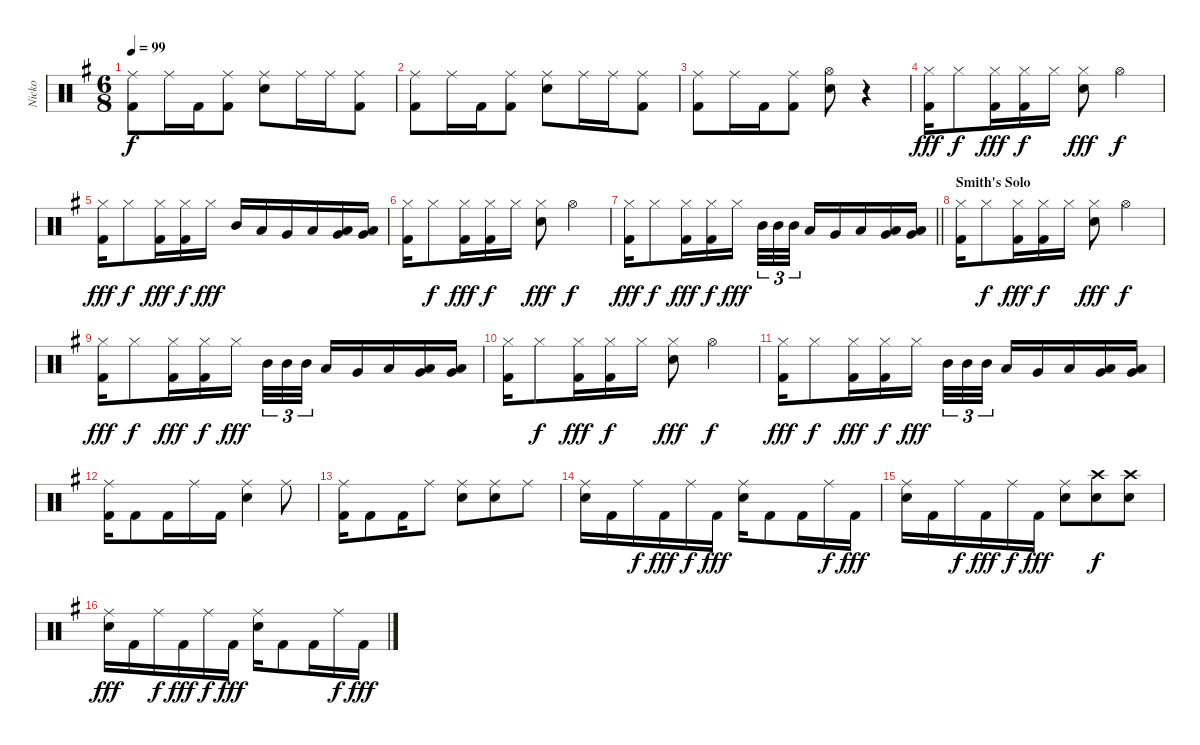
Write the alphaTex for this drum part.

\track ("Nicko" "Nicko") {instrument percussion}
\staff {score}
\articulation defaults
\ts (6 8)
\tempo 99
\clef neutral
\ks eminor
("Ride (middle)" "Kick (hit) 2").8{dy f} "Ride (middle)".16 "Kick (hit) 2".16 ("Ride (middle)" "Kick (hit) 2").8 ("Ride (middle)" "Snare (hit) 2").8 "Ride (middle)".16 "Ride (middle)".16 ("Ride (middle)" "Kick (hit) 2").8 |
("Ride (middle)" "Kick (hit) 2").8 "Ride (middle)".16 "Kick (hit) 2".16 ("Ride (middle)" "Kick (hit) 2").8 ("Ride (middle)" "Snare (hit) 2").8 "Ride (middle)".16 "Ride (middle)".16 ("Ride (middle)" "Kick (hit) 2").8 |
("Ride (middle)" "Kick (hit) 2").8 "Ride (middle)".16 "Kick (hit) 2".16 ("Ride (middle)" "Kick (hit) 2").8 ("Hi-Hat (open)" "Snare (hit) 2").8 r.4 |
("Hi-Hat (closed)" "Kick (hit) 2").16{dy fff} "Hi-Hat (closed)".8{dy f} ("Hi-Hat (closed)" "Kick (hit) 2").16{dy fff} ("Hi-Hat (closed)" "Kick (hit) 2").16{dy f} "Hi-Hat (closed)".16 ("Hi-Hat (closed)" "Snare (hit) 2").8{dy fff} "Hi-Hat (open)".4{dy f} |
("Hi-Hat (closed)" "Kick (hit) 2").16{dy fff} "Hi-Hat (closed)".8{dy f} ("Hi-Hat (closed)" "Kick (hit) 2").16{dy fff} ("Hi-Hat (closed)" "Kick (hit) 2").16{dy f} "Hi-Hat (closed)".16{dy fff} "Mid Tom (hit)".16 "Low Tom (hit)".16 "Very Low Tom (hit)".16 "Low Floor Tom (hit)".16 ("Very Low Tom (hit)" "Low Floor Tom (hit)").16 ("Very Low Tom (hit)" "Low Floor Tom (hit)").16 |
("Hi-Hat (closed)" "Kick (hit) 2").16 "Hi-Hat (closed)".8{dy f} ("Hi-Hat (closed)" "Kick (hit) 2").16{dy fff} ("Hi-Hat (closed)" "Kick (hit) 2").16{dy f} "Hi-Hat (closed)".16 ("Hi-Hat (closed)" "Snare (hit) 2").8{dy fff} "Hi-Hat (open)".4{dy f} |
\barLineRight lightlight
("Hi-Hat (closed)" "Kick (hit) 2").16{dy fff} "Hi-Hat (closed)".8{dy f} ("Hi-Hat (closed)" "Kick (hit) 2").16{dy fff} ("Hi-Hat (closed)" "Kick (hit) 2").16{dy f} "Hi-Hat (closed)".16{dy fff} "Mid Tom (hit)".32{tu (3 2)} "Mid Tom (hit)".32{tu (3 2)} "Mid Tom (hit)".32{tu (3 2)} "Low Tom (hit)".16 "Very Low Tom (hit)".16 "Low Floor Tom (hit)".16 ("Very Low Tom (hit)" "Low Floor Tom (hit)").16 ("Very Low Tom (hit)" "Low Floor Tom (hit)").16 |
\section ("" "Smith's Solo")
("Hi-Hat (closed)" "Kick (hit) 2").16 "Hi-Hat (closed)".8{dy f} ("Hi-Hat (closed)" "Kick (hit) 2").16{dy fff} ("Hi-Hat (closed)" "Kick (hit) 2").16{dy f} "Hi-Hat (closed)".16 ("Hi-Hat (closed)" "Snare (hit) 2").8{dy fff} "Hi-Hat (open)".4{dy f} |
("Hi-Hat (closed)" "Kick (hit) 2").16{dy fff} "Hi-Hat (closed)".8{dy f} ("Hi-Hat (closed)" "Kick (hit) 2").16{dy fff} ("Hi-Hat (closed)" "Kick (hit) 2").16{dy f} "Hi-Hat (closed)".16{dy fff} "Mid Tom (hit)".32{tu (3 2)} "Mid Tom (hit)".32{tu (3 2)} "Mid Tom (hit)".32{tu (3 2)} "Low Tom (hit)".16 "Very Low Tom (hit)".16 "Low Floor Tom (hit)".16 ("Very Low Tom (hit)" "Low Floor Tom (hit)").16 ("Very Low Tom (hit)" "Low Floor Tom (hit)").16 |
("Hi-Hat (closed)" "Kick (hit) 2").16 "Hi-Hat (closed)".8{dy f} ("Hi-Hat (closed)" "Kick (hit) 2").16{dy fff} ("Hi-Hat (closed)" "Kick (hit) 2").16{dy f} "Hi-Hat (closed)".16 ("Hi-Hat (closed)" "Snare (hit) 2").8{dy fff} "Hi-Hat (open)".4{dy f} |
("Hi-Hat (closed)" "Kick (hit) 2").16{dy fff} "Hi-Hat (closed)".8{dy f} ("Hi-Hat (closed)" "Kick (hit) 2").16{dy fff} ("Hi-Hat (closed)" "Kick (hit) 2").16{dy f} "Hi-Hat (closed)".16{dy fff} "Mid Tom (hit)".32{tu (3 2)} "Mid Tom (hit)".32{tu (3 2)} "Mid Tom (hit)".32{tu (3 2)} "Low Tom (hit)".16 "Very Low Tom (hit)".16 "Low Floor Tom (hit)".16 ("Very Low Tom (hit)" "Low Floor Tom (hit)").16 ("Very Low Tom (hit)" "Low Floor Tom (hit)").16 |
("Ride (middle)" "Kick (hit) 2").16 "Kick (hit) 2".8 "Kick (hit) 2".16 "Ride (middle)".16 "Kick (hit) 2".16 ("Ride (middle)" "Snare (hit) 2").4 "Ride (middle)".8 |
("Ride (middle)" "Kick (hit) 2").16 "Kick (hit) 2".8 "Kick (hit) 2".16 "Ride (middle)".8 ("Ride (middle)" "Snare (hit) 2").8 ("Ride (middle)" "Snare (hit) 2").8 "Ride (middle)".8 |
("Ride (middle)" "Snare (hit) 2").16 "Kick (hit) 2".16 "Ride (middle)".16{dy f} "Kick (hit) 2".16{dy fff} "Ride (middle)".16{dy f} "Kick (hit) 2".16{dy fff} ("Ride (middle)" "Snare (hit) 2").16 "Kick (hit) 2".8 "Kick (hit) 2".16 "Ride (middle)".16{dy f} "Kick (hit) 2".16{dy fff} |
("Ride (middle)" "Snare (hit) 2").16 "Kick (hit) 2".16 "Ride (middle)".16{dy f} "Kick (hit) 2".16{dy fff} "Ride (middle)".16{dy f} "Kick (hit) 2".16{dy fff} ("Ride (middle)" "Snare (hit) 2").8 ("Crash high (hit)" "Snare (hit) 2").8{dy f} ("Crash high (hit)" "Snare (hit) 2").8 |
("Ride (middle)" "Snare (hit) 2").16{dy fff} "Kick (hit) 2".16 "Ride (middle)".16{dy f} "Kick (hit) 2".16{dy fff} "Ride (middle)".16{dy f} "Kick (hit) 2".16{dy fff} ("Ride (middle)" "Snare (hit) 2").16 "Kick (hit) 2".8 "Kick (hit) 2".16 "Ride (middle)".16{dy f} "Kick (hit) 2".16{dy fff}
